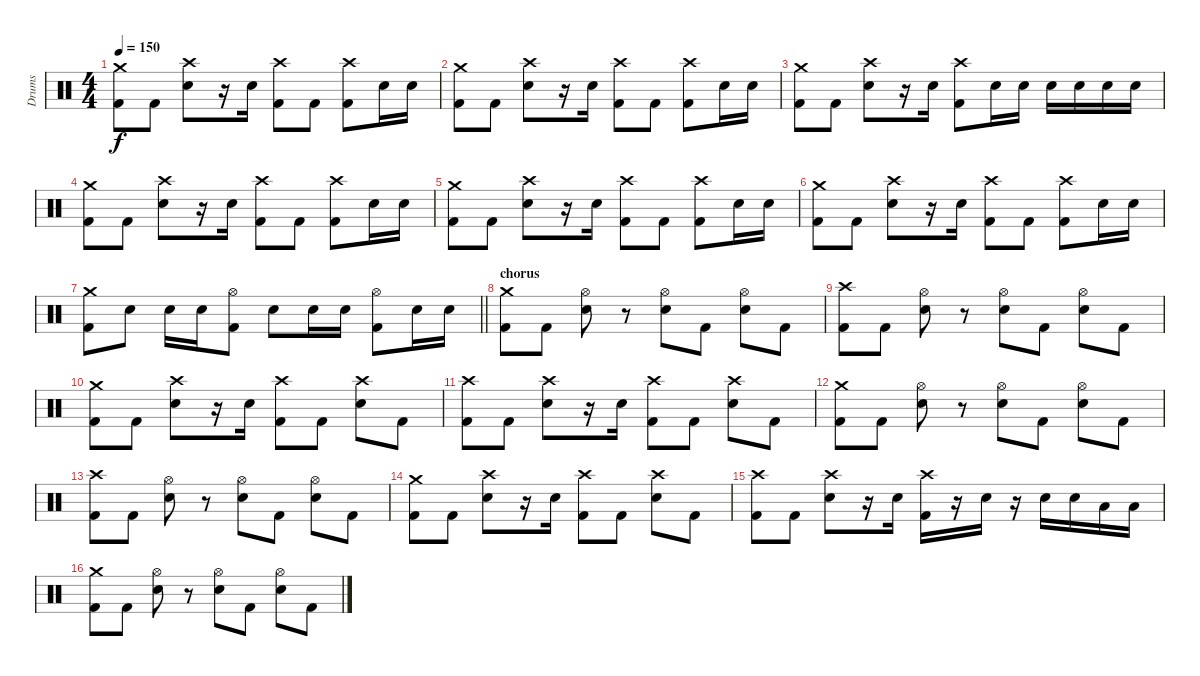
\track ("Drums" "Drums") {instrument percussion}
\staff {score}
\articulation defaults
\ts (4 4)
\tempo 150
\clef neutral
\ks c
("Kick (hit) 2" "Crash medium (hit)").8{dy f} "Kick (hit) 2".8 ("Electric Snare (hit)" "Crash high (hit)").8 r.16 "Electric Snare (hit)".16 ("Kick (hit) 2" "Crash high (hit)").8 "Kick (hit) 2".8 ("Kick (hit) 2" "Crash high (hit)").8 "Electric Snare (hit)".16 "Electric Snare (hit)".16 |
("Kick (hit) 2" "Crash medium (hit)").8 "Kick (hit) 2".8 ("Electric Snare (hit)" "Crash high (hit)").8 r.16 "Electric Snare (hit)".16 ("Kick (hit) 2" "Crash high (hit)").8 "Kick (hit) 2".8 ("Kick (hit) 2" "Crash high (hit)").8 "Electric Snare (hit)".16 "Electric Snare (hit)".16 |
("Kick (hit) 2" "Crash medium (hit)").8 "Kick (hit) 2".8 ("Electric Snare (hit)" "Crash high (hit)").8 r.16 "Electric Snare (hit)".16 ("Kick (hit) 2" "Crash high (hit)").8 "Electric Snare (hit)".16 "Electric Snare (hit)".16 "Electric Snare (hit)".16 "Electric Snare (hit)".16 "Electric Snare (hit)".16 "Electric Snare (hit)".16 |
("Kick (hit) 2" "Crash medium (hit)").8 "Kick (hit) 2".8 ("Electric Snare (hit)" "Crash high (hit)").8 r.16 "Electric Snare (hit)".16 ("Kick (hit) 2" "Crash high (hit)").8 "Kick (hit) 2".8 ("Kick (hit) 2" "Crash high (hit)").8 "Electric Snare (hit)".16 "Electric Snare (hit)".16 |
("Kick (hit) 2" "Crash medium (hit)").8 "Kick (hit) 2".8 ("Electric Snare (hit)" "Crash high (hit)").8 r.16 "Electric Snare (hit)".16 ("Kick (hit) 2" "Crash high (hit)").8 "Kick (hit) 2".8 ("Kick (hit) 2" "Crash high (hit)").8 "Electric Snare (hit)".16 "Electric Snare (hit)".16 |
("Kick (hit) 2" "Crash medium (hit)").8 "Kick (hit) 2".8 ("Electric Snare (hit)" "Crash high (hit)").8 r.16 "Electric Snare (hit)".16 ("Kick (hit) 2" "Crash high (hit)").8 "Kick (hit) 2".8 ("Kick (hit) 2" "Crash high (hit)").8 "Electric Snare (hit)".16 "Electric Snare (hit)".16 |
\barLineRight lightlight
("Kick (hit) 2" "Crash medium (hit)").8 "Electric Snare (hit)".8 "Electric Snare (hit)".16 "Electric Snare (hit)".16 ("Kick (hit) 2" "Hi-Hat (open)").8 "Electric Snare (hit)".8 "Electric Snare (hit)".16 "Electric Snare (hit)".16 ("Kick (hit) 2" "Hi-Hat (open)").8 "Electric Snare (hit)".16 "Electric Snare (hit)".16 |
\section ("" "chorus")
("Kick (hit) 2" "Crash medium (hit)").8 "Kick (hit) 2".8 ("Electric Snare (hit)" "Hi-Hat (open)").8 r.8 ("Electric Snare (hit)" "Hi-Hat (open)").8 "Kick (hit) 2".8 ("Electric Snare (hit)" "Hi-Hat (open)").8 "Kick (hit) 2".8 |
("Kick (hit) 2" "Crash high (hit)").8 "Kick (hit) 2".8 ("Electric Snare (hit)" "Hi-Hat (open)").8 r.8 ("Electric Snare (hit)" "Hi-Hat (open)").8 "Kick (hit) 2".8 ("Electric Snare (hit)" "Hi-Hat (open)").8 "Kick (hit) 2".8 |
("Kick (hit) 2" "Crash medium (hit)").8 "Kick (hit) 2".8 ("Electric Snare (hit)" "Crash high (hit)").8 r.16 "Electric Snare (hit)".16 ("Kick (hit) 2" "Crash high (hit)").8 "Kick (hit) 2".8 ("Electric Snare (hit)" "Crash high (hit)").8 "Kick (hit) 2".8 |
("Kick (hit) 2" "Crash high (hit)").8 "Kick (hit) 2".8 ("Electric Snare (hit)" "Crash high (hit)").8 r.16 "Electric Snare (hit)".16 ("Kick (hit) 2" "Crash high (hit)").8 "Kick (hit) 2".8 ("Electric Snare (hit)" "Crash high (hit)").8 "Kick (hit) 2".8 |
("Kick (hit) 2" "Crash medium (hit)").8 "Kick (hit) 2".8 ("Electric Snare (hit)" "Hi-Hat (open)").8 r.8 ("Electric Snare (hit)" "Hi-Hat (open)").8 "Kick (hit) 2".8 ("Electric Snare (hit)" "Hi-Hat (open)").8 "Kick (hit) 2".8 |
("Kick (hit) 2" "Crash high (hit)").8 "Kick (hit) 2".8 ("Electric Snare (hit)" "Hi-Hat (open)").8 r.8 ("Electric Snare (hit)" "Hi-Hat (open)").8 "Kick (hit) 2".8 ("Electric Snare (hit)" "Hi-Hat (open)").8 "Kick (hit) 2".8 |
("Kick (hit) 2" "Crash medium (hit)").8 "Kick (hit) 2".8 ("Electric Snare (hit)" "Crash high (hit)").8 r.16 "Electric Snare (hit)".16 ("Kick (hit) 2" "Crash high (hit)").8 "Kick (hit) 2".8 ("Electric Snare (hit)" "Crash high (hit)").8 "Kick (hit) 2".8 |
("Kick (hit) 2" "Crash high (hit)").8 "Kick (hit) 2".8 ("Electric Snare (hit)" "Crash high (hit)").8 r.16 "Electric Snare (hit)".16 ("Kick (hit) 2" "Crash high (hit)").16 r.16 "Electric Snare (hit)".16 r.16 "Electric Snare (hit)".16 "Electric Snare (hit)".16 "Low Tom (hit)".16 "Low Tom (hit)".16 |
("Kick (hit) 2" "Crash medium (hit)").8 "Kick (hit) 2".8 ("Electric Snare (hit)" "Hi-Hat (open)").8 r.8 ("Electric Snare (hit)" "Hi-Hat (open)").8 "Kick (hit) 2".8 ("Electric Snare (hit)" "Hi-Hat (open)").8 "Kick (hit) 2".8
